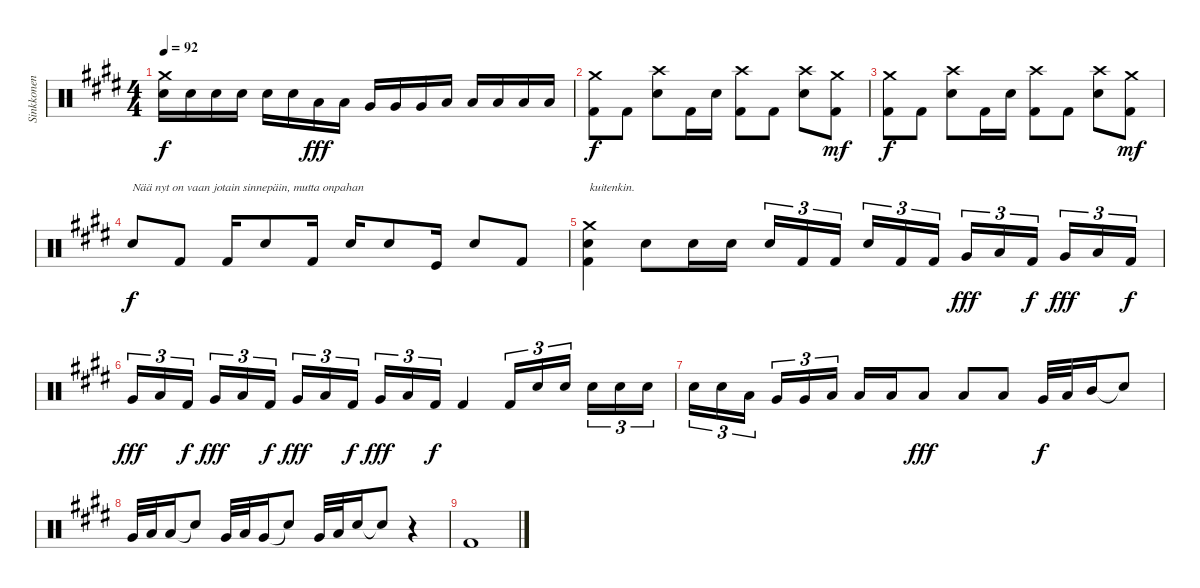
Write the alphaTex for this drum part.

\track ("Sinkkonen" "Sinkkonen") {instrument percussion}
\staff {score}
\articulation defaults
\ts (4 4)
\tempo 92
\clef neutral
\ks c#minor
("Crash medium (hit)" "Snare (hit) 2").16{dy f} "Snare (hit) 2".16 "Snare (hit) 2".16 "Snare (hit) 2".16 "Snare (hit) 2".16 "Snare (hit) 2".16 "Low Tom (hit)".16{dy fff} "Low Tom (hit)".16 "Very Low Tom (hit)".16 "Very Low Tom (hit)".16 "Very Low Tom (hit)".16 "Low Floor Tom (hit)".16 "Low Floor Tom (hit)".16 "Low Floor Tom (hit)".16 "Low Floor Tom (hit)".16 "Low Floor Tom (hit)".16 |
("Kick (hit) 2" "Crash medium (hit)").8{dy f} "Kick (hit) 2".8 ("Crash high (hit)" "Snare (hit) 2").8 "Kick (hit) 2".16 "Snare (hit) 2".16 ("Kick (hit) 2" "Crash high (hit)").8 "Kick (hit) 2".8 ("Crash high (hit)" "Snare (hit) 2").8 ("Kick (hit) 2" "Crash medium (hit)").8{dy mf} |
("Kick (hit) 2" "Crash medium (hit)").8{dy f} "Kick (hit) 2".8 ("Crash high (hit)" "Snare (hit) 2").8 "Kick (hit) 2".16 "Snare (hit) 2".16 ("Kick (hit) 2" "Crash high (hit)").8 "Kick (hit) 2".8 ("Crash high (hit)" "Snare (hit) 2").8 ("Kick (hit) 2" "Crash medium (hit)").8{dy mf} |
"Snare (hit) 2".8{txt "Nää nyt on vaan jotain sinnepäin, mutta onpahan" dy f} "Kick (hit) 2".8 "Kick (hit) 2".16 "Snare (hit) 2".8 "Kick (hit) 2".16 "Snare (hit) 2".16 "Snare (hit) 2".8 "Kick (hit)".16 "Snare (hit) 2".8 "Kick (hit) 2".8 |
("Kick (hit) 2" "Crash medium (hit)" "Snare (hit) 2").4{txt "kuitenkin."} "Snare (hit) 2".8 "Snare (hit) 2".16 "Snare (hit) 2".16 "Snare (hit) 2".16{tu (3 2)} "Kick (hit) 2".16{tu (3 2)} "Kick (hit) 2".16{tu (3 2)} "Snare (hit) 2".16{tu (3 2)} "Kick (hit) 2".16{tu (3 2)} "Kick (hit) 2".16{tu (3 2)} "Very Low Tom (hit)".16{tu (3 2) dy fff} "Low Floor Tom (hit)".16{tu (3 2)} "Kick (hit) 2".16{tu (3 2) dy f} "Very Low Tom (hit)".16{tu (3 2) dy fff} "Low Floor Tom (hit)".16{tu (3 2)} "Kick (hit) 2".16{tu (3 2) dy f} |
"Very Low Tom (hit)".16{tu (3 2) dy fff} "Low Floor Tom (hit)".16{tu (3 2)} "Kick (hit) 2".16{tu (3 2) dy f} "Very Low Tom (hit)".16{tu (3 2) dy fff} "Low Floor Tom (hit)".16{tu (3 2)} "Kick (hit) 2".16{tu (3 2) dy f} "Very Low Tom (hit)".16{tu (3 2) dy fff} "Low Floor Tom (hit)".16{tu (3 2)} "Kick (hit) 2".16{tu (3 2) dy f} "Very Low Tom (hit)".16{tu (3 2) dy fff} "Low Floor Tom (hit)".16{tu (3 2)} "Kick (hit) 2".16{tu (3 2) dy f} "Kick (hit) 2".4 "Kick (hit) 2".16{tu (3 2)} "Snare (hit) 2".16{tu (3 2)} "Snare (hit) 2".16{tu (3 2)} "Snare (hit) 2".16{tu (3 2)} "Snare (hit) 2".16{tu (3 2)} "Snare (hit) 2".16{tu (3 2)} |
"Snare (hit) 2".16{tu (3 2)} "Snare (hit) 2".16{tu (3 2)} "Low Tom (hit)".16{tu (3 2)} "Very Low Tom (hit)".16{tu (3 2)} "Very Low Tom (hit)".16{tu (3 2)} "Low Floor Tom (hit)".16{tu (3 2)} "Low Floor Tom (hit)".16 "Low Floor Tom (hit)".16 "Low Floor Tom (hit)".8{dy fff} "Low Floor Tom (hit)".8 "Low Floor Tom (hit)".8 "Very Low Tom (hit)".32{dy f} "Low Floor Tom (hit)".32 "Mid Tom (hit)".16 "Snare (hit)"{t}.8 |
"Very Low Tom (hit)".32 "Low Floor Tom (hit)".32 "Low Tom (hit)".16 "Snare (hit)"{t}.8 "Very Low Tom (hit)".32 "Low Floor Tom (hit)".32 "Very Low Tom (hit)".16 "Snare (hit)"{t}.8 "Very Low Tom (hit)".32 "Low Floor Tom (hit)".32 "Snare (hit) 2".16 "Snare (hit)"{t}.8 r.4 |
"Kick (hit) 2".1
